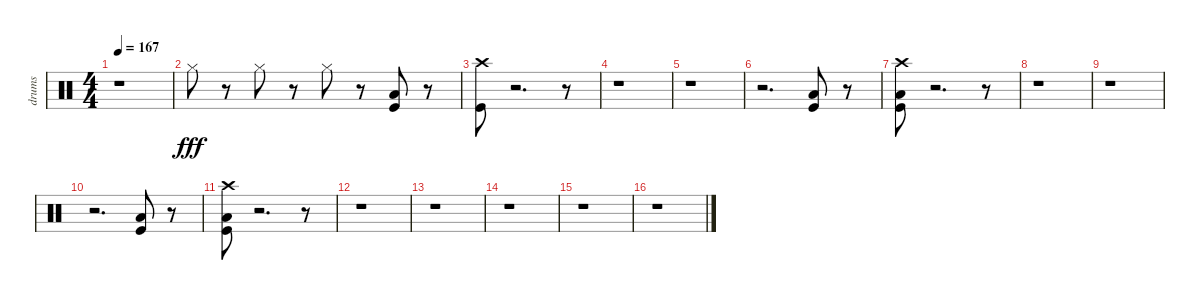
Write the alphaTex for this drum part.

\track ("drums" "drums") {instrument percussion}
\staff {score}
\articulation defaults
\ts (4 4)
\tempo 167
\clef neutral
\ks c
r.1{dy fff} |
"Hi-Hat (closed)".8 r.8 "Hi-Hat (closed)".8{volume 16} r.8 "Hi-Hat (closed)".8 r.8 ("Kick (hit)" "Low Tom (hit)").8 r.8 |
("Kick (hit)" "Crash high (hit)").8 r.2{d} r.8 |
r.1 |
r.1 |
r.2{d} ("Kick (hit)" "Low Floor Tom (hit)").8 r.8 |
("Low Tom (hit)" "Kick (hit)" "Crash high (hit)").8 r.2{d} r.8 |
r.1 |
r.1 |
r.2{d} ("Kick (hit)" "Low Floor Tom (hit)").8 r.8 |
("Low Tom (hit)" "Kick (hit)" "Crash high (hit)").8 r.2{d} r.8 |
r.1 |
r.1 |
r.1 |
r.1 |
r.1
